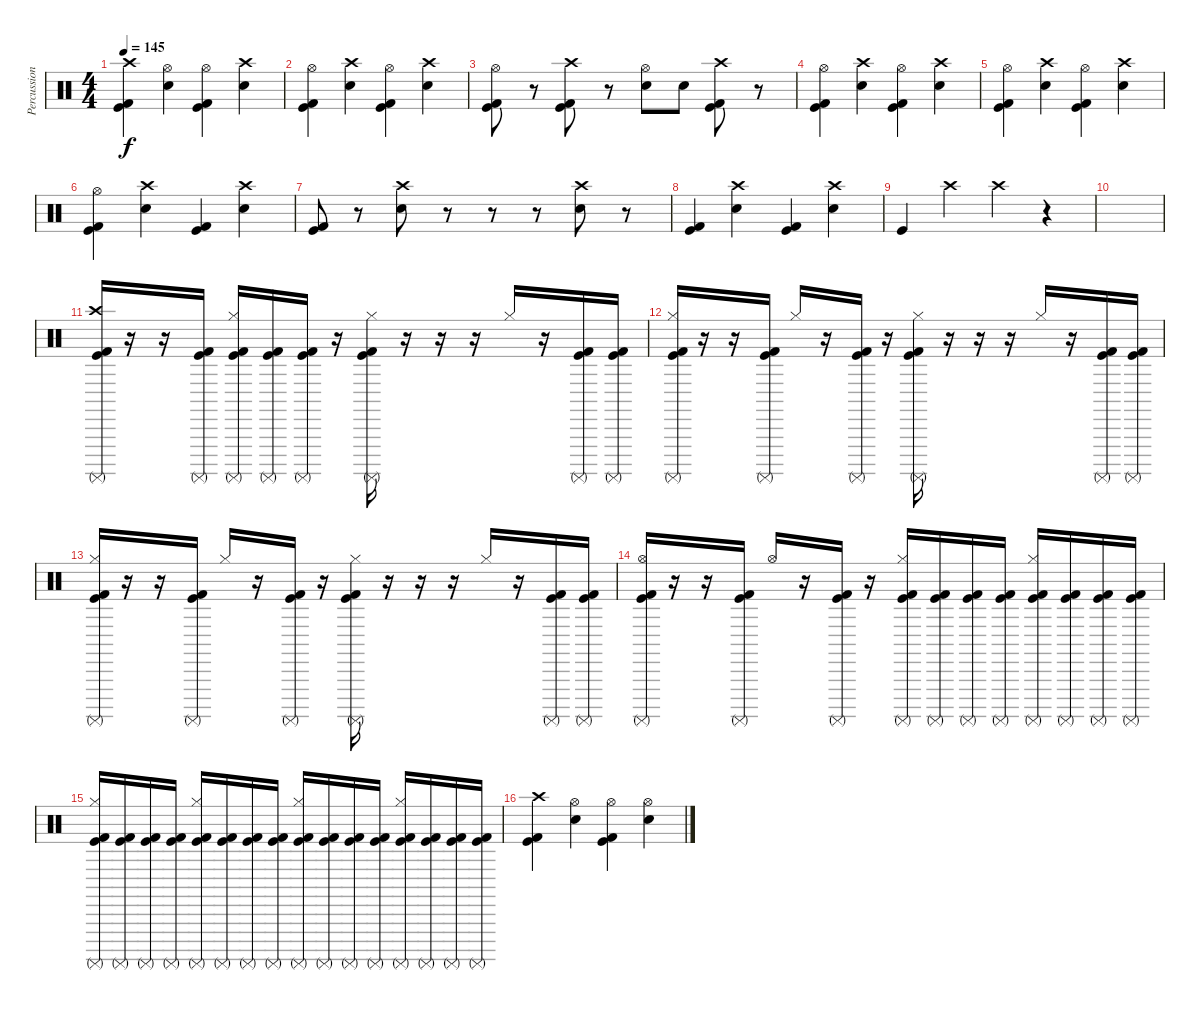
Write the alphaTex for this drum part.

\track ("Percussion" "Percussion") {instrument percussion}
\staff {score}
\articulation defaults
\ts (4 4)
\tempo 145
\clef neutral
\ks c
("Crash high (hit)" "Kick (hit)" "Kick (hit) 2").4{dy f} ("Hi-Hat (open)" "Snare (hit) 2").4 ("Hi-Hat (open)" "Kick (hit)" "Kick (hit) 2").4 ("Crash high (hit)" "Snare (hit) 2").4 |
("Hi-Hat (open)" "Kick (hit) 2" "Kick (hit)").4 ("Crash high (hit)" "Snare (hit) 2").4 ("Hi-Hat (open)" "Kick (hit) 2" "Kick (hit)").4 ("Crash high (hit)" "Snare (hit) 2").4 |
("Hi-Hat (open)" "Kick (hit)" "Kick (hit) 2").8 r.8 ("Crash high (hit)" "Kick (hit)" "Kick (hit) 2").8 r.8 ("Hi-Hat (open)" "Snare (hit) 2").8 "Snare (hit)".8 ("Crash high (hit)" "Kick (hit)" "Kick (hit) 2").8 r.8 |
("Hi-Hat (open)" "Kick (hit) 2" "Kick (hit)").4 ("Crash high (hit)" "Snare (hit) 2").4 ("Hi-Hat (open)" "Kick (hit) 2" "Kick (hit)").4 ("Crash high (hit)" "Snare (hit) 2").4 |
("Hi-Hat (open)" "Kick (hit)" "Kick (hit) 2").4 ("Crash high (hit)" "Snare (hit) 2").4 ("Hi-Hat (open)" "Kick (hit)" "Kick (hit) 2").4 ("Crash high (hit)" "Snare (hit) 2").4 |
("Hi-Hat (open)" "Kick (hit) 2" "Kick (hit)").4 ("Crash high (hit)" "Snare (hit) 2").4 ("Kick (hit) 2" "Kick (hit)").4 ("Crash high (hit)" "Snare (hit) 2").4 |
("Kick (hit)" "Kick (hit) 2").8 r.8 ("Crash high (hit)" "Snare (hit) 2").8 r.8 r.8 r.8 ("Crash high (hit)" "Snare (hit) 2").8 r.8 |
("Kick (hit) 2" "Kick (hit)").4 ("Crash high (hit)" "Snare (hit) 2").4 ("Kick (hit) 2" "Kick (hit)").4 ("Crash high (hit)" "Snare (hit) 2").4 |
"Kick (hit)".4 "Crash high (hit)".4 "Crash high (hit)".4 r.4 |
|
("Surdo (mute)" "Kick (hit)" "Kick (hit) 2" "Crash high (hit)").16 r.16 r.16 ("Surdo (mute)" "Kick (hit)" "Kick (hit) 2").16 ("Surdo (mute)" "Kick (hit)" "Kick (hit) 2" "Hi-Hat (closed)").16 ("Surdo (mute)" "Kick (hit)" "Kick (hit) 2").16 ("Surdo (mute)" "Kick (hit)" "Kick (hit) 2").16 r.16 ("Surdo (mute)" "Kick (hit)" "Kick (hit) 2" "Hi-Hat (closed)").16 r.16 r.16 r.16 "Hi-Hat (closed)".16 r.16 ("Surdo (mute)" "Kick (hit)" "Kick (hit) 2").16 ("Surdo (mute)" "Kick (hit)" "Kick (hit) 2").16 |
("Surdo (mute)" "Kick (hit)" "Kick (hit) 2" "Hi-Hat (closed)").16 r.16 r.16 ("Surdo (mute)" "Kick (hit)" "Kick (hit) 2").16 "Hi-Hat (closed)".16 r.16 ("Surdo (mute)" "Kick (hit)" "Kick (hit) 2").16 r.16 ("Surdo (mute)" "Kick (hit)" "Kick (hit) 2" "Hi-Hat (closed)").16 r.16 r.16 r.16 "Hi-Hat (closed)".16 r.16 ("Surdo (mute)" "Kick (hit)" "Kick (hit) 2").16 ("Surdo (mute)" "Kick (hit)" "Kick (hit) 2").16 |
("Surdo (mute)" "Kick (hit)" "Kick (hit) 2" "Hi-Hat (closed)").16 r.16 r.16 ("Surdo (mute)" "Kick (hit)" "Kick (hit) 2").16 "Hi-Hat (closed)".16 r.16 ("Surdo (mute)" "Kick (hit)" "Kick (hit) 2").16 r.16 ("Surdo (mute)" "Kick (hit)" "Kick (hit) 2" "Hi-Hat (closed)").16 r.16 r.16 r.16 "Hi-Hat (closed)".16 r.16 ("Surdo (mute)" "Kick (hit)" "Kick (hit) 2").16 ("Surdo (mute)" "Kick (hit)" "Kick (hit) 2").16 |
("Surdo (mute)" "Kick (hit)" "Kick (hit) 2" "Hi-Hat (open)").16 r.16 r.16 ("Surdo (mute)" "Kick (hit)" "Kick (hit) 2").16 "Hi-Hat (open)".16 r.16 ("Surdo (mute)" "Kick (hit)" "Kick (hit) 2").16 r.16 ("Surdo (mute)" "Kick (hit)" "Kick (hit) 2" "Hi-Hat (closed)").16 ("Surdo (mute)" "Kick (hit)" "Kick (hit) 2").16{volume 5} ("Surdo (mute)" "Kick (hit)" "Kick (hit) 2").16{volume 16} ("Surdo (mute)" "Kick (hit)" "Kick (hit) 2").16 ("Surdo (mute)" "Kick (hit)" "Kick (hit) 2" "Hi-Hat (closed)").16 ("Surdo (mute)" "Kick (hit)" "Kick (hit) 2").16 ("Surdo (mute)" "Kick (hit)" "Kick (hit) 2").16 ("Surdo (mute)" "Kick (hit)" "Kick (hit) 2").16 |
("Surdo (mute)" "Kick (hit)" "Kick (hit) 2" "Hi-Hat (closed)").16 ("Surdo (mute)" "Kick (hit)" "Kick (hit) 2").16 ("Surdo (mute)" "Kick (hit)" "Kick (hit) 2").16 ("Surdo (mute)" "Kick (hit)" "Kick (hit) 2").16 ("Surdo (mute)" "Kick (hit)" "Kick (hit) 2" "Hi-Hat (closed)").16 ("Surdo (mute)" "Kick (hit)" "Kick (hit) 2").16 ("Surdo (mute)" "Kick (hit)" "Kick (hit) 2").16 ("Surdo (mute)" "Kick (hit)" "Kick (hit) 2").16 ("Surdo (mute)" "Kick (hit)" "Kick (hit) 2" "Hi-Hat (closed)").16 ("Surdo (mute)" "Kick (hit)" "Kick (hit) 2").16 ("Surdo (mute)" "Kick (hit)" "Kick (hit) 2").16 ("Surdo (mute)" "Kick (hit)" "Kick (hit) 2").16 ("Surdo (mute)" "Kick (hit)" "Kick (hit) 2" "Hi-Hat (closed)").16 ("Surdo (mute)" "Kick (hit)" "Kick (hit) 2").16 ("Surdo (mute)" "Kick (hit)" "Kick (hit) 2").16 ("Surdo (mute)" "Kick (hit)" "Kick (hit) 2").16 |
("Kick (hit) 2" "Crash high (hit)" "Kick (hit)").4 ("Hi-Hat (open)" "Snare (hit) 2").4 ("Hi-Hat (open)" "Kick (hit)" "Kick (hit) 2").4 ("Hi-Hat (open)" "Snare (hit) 2").4
